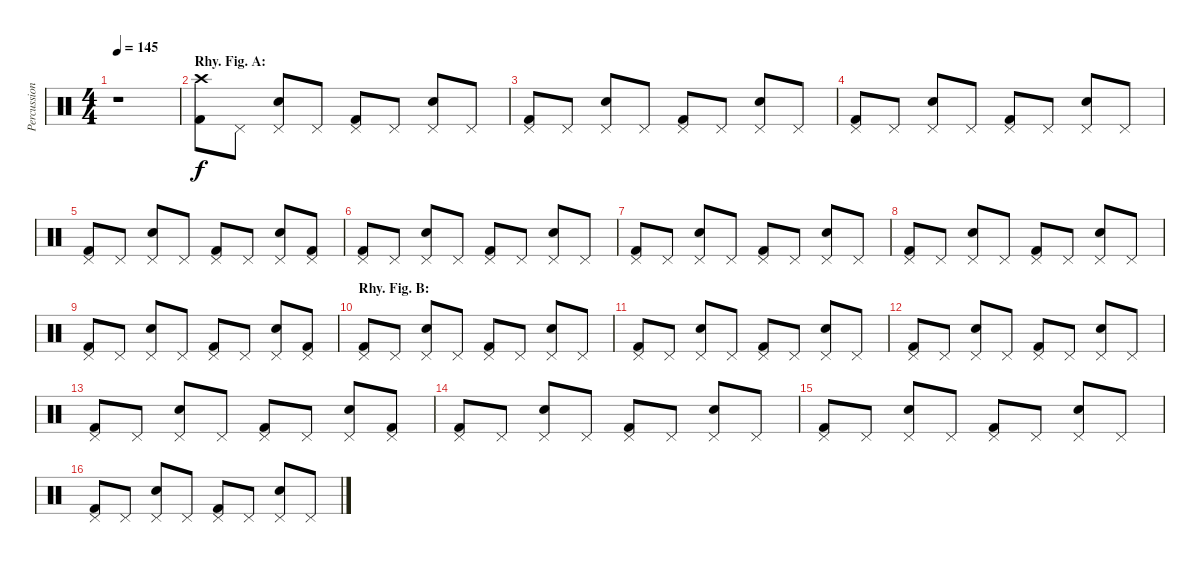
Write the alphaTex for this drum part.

\track ("Percussion" "Percussion") {instrument percussion}
\staff {score}
\articulation defaults
\ts (4 4)
\tempo 145
\clef neutral
\ks c
r.1{dy f} |
\section ("" "Rhy. Fig. A:")
("Crash high (hit)" "Kick (hit) 2").8 "Pedal Hi-Hat (hit)".8 ("Pedal Hi-Hat (hit)" "Electric Snare (hit)").8 "Pedal Hi-Hat (hit)".8 ("Pedal Hi-Hat (hit)" "Kick (hit) 2").8 "Pedal Hi-Hat (hit)".8 ("Pedal Hi-Hat (hit)" "Electric Snare (hit)").8 "Pedal Hi-Hat (hit)".8 |
("Pedal Hi-Hat (hit)" "Kick (hit) 2").8 "Pedal Hi-Hat (hit)".8 ("Pedal Hi-Hat (hit)" "Electric Snare (hit)").8 "Pedal Hi-Hat (hit)".8 ("Pedal Hi-Hat (hit)" "Kick (hit) 2").8 "Pedal Hi-Hat (hit)".8 ("Pedal Hi-Hat (hit)" "Electric Snare (hit)").8 "Pedal Hi-Hat (hit)".8 |
("Pedal Hi-Hat (hit)" "Kick (hit) 2").8 "Pedal Hi-Hat (hit)".8 ("Pedal Hi-Hat (hit)" "Electric Snare (hit)").8 "Pedal Hi-Hat (hit)".8 ("Pedal Hi-Hat (hit)" "Kick (hit) 2").8 "Pedal Hi-Hat (hit)".8 ("Pedal Hi-Hat (hit)" "Electric Snare (hit)").8 "Pedal Hi-Hat (hit)".8 |
("Pedal Hi-Hat (hit)" "Kick (hit) 2").8 "Pedal Hi-Hat (hit)".8 ("Pedal Hi-Hat (hit)" "Electric Snare (hit)").8 "Pedal Hi-Hat (hit)".8 ("Pedal Hi-Hat (hit)" "Kick (hit) 2").8 "Pedal Hi-Hat (hit)".8 ("Pedal Hi-Hat (hit)" "Electric Snare (hit)").8 ("Pedal Hi-Hat (hit)" "Kick (hit) 2").8 |
("Pedal Hi-Hat (hit)" "Kick (hit) 2").8 "Pedal Hi-Hat (hit)".8 ("Pedal Hi-Hat (hit)" "Electric Snare (hit)").8 "Pedal Hi-Hat (hit)".8 ("Pedal Hi-Hat (hit)" "Kick (hit) 2").8 "Pedal Hi-Hat (hit)".8 ("Pedal Hi-Hat (hit)" "Electric Snare (hit)").8 "Pedal Hi-Hat (hit)".8 |
("Pedal Hi-Hat (hit)" "Kick (hit) 2").8 "Pedal Hi-Hat (hit)".8 ("Pedal Hi-Hat (hit)" "Electric Snare (hit)").8 "Pedal Hi-Hat (hit)".8 ("Pedal Hi-Hat (hit)" "Kick (hit) 2").8 "Pedal Hi-Hat (hit)".8 ("Pedal Hi-Hat (hit)" "Electric Snare (hit)").8 "Pedal Hi-Hat (hit)".8 |
("Pedal Hi-Hat (hit)" "Kick (hit) 2").8 "Pedal Hi-Hat (hit)".8 ("Pedal Hi-Hat (hit)" "Electric Snare (hit)").8 "Pedal Hi-Hat (hit)".8 ("Pedal Hi-Hat (hit)" "Kick (hit) 2").8 "Pedal Hi-Hat (hit)".8 ("Pedal Hi-Hat (hit)" "Electric Snare (hit)").8 "Pedal Hi-Hat (hit)".8 |
("Pedal Hi-Hat (hit)" "Kick (hit) 2").8 "Pedal Hi-Hat (hit)".8 ("Pedal Hi-Hat (hit)" "Electric Snare (hit)").8 "Pedal Hi-Hat (hit)".8 ("Pedal Hi-Hat (hit)" "Kick (hit) 2").8 "Pedal Hi-Hat (hit)".8 ("Pedal Hi-Hat (hit)" "Electric Snare (hit)").8 ("Pedal Hi-Hat (hit)" "Kick (hit) 2").8 |
\section ("" "Rhy. Fig. B:")
("Pedal Hi-Hat (hit)" "Kick (hit) 2").8 "Pedal Hi-Hat (hit)".8 ("Pedal Hi-Hat (hit)" "Electric Snare (hit)").8 "Pedal Hi-Hat (hit)".8 ("Pedal Hi-Hat (hit)" "Kick (hit) 2").8 "Pedal Hi-Hat (hit)".8 ("Pedal Hi-Hat (hit)" "Electric Snare (hit)").8 "Pedal Hi-Hat (hit)".8 |
("Pedal Hi-Hat (hit)" "Kick (hit) 2").8 "Pedal Hi-Hat (hit)".8 ("Pedal Hi-Hat (hit)" "Electric Snare (hit)").8 "Pedal Hi-Hat (hit)".8 ("Pedal Hi-Hat (hit)" "Kick (hit) 2").8 "Pedal Hi-Hat (hit)".8 ("Pedal Hi-Hat (hit)" "Electric Snare (hit)").8 "Pedal Hi-Hat (hit)".8 |
("Pedal Hi-Hat (hit)" "Kick (hit) 2").8 "Pedal Hi-Hat (hit)".8 ("Pedal Hi-Hat (hit)" "Electric Snare (hit)").8 "Pedal Hi-Hat (hit)".8 ("Pedal Hi-Hat (hit)" "Kick (hit) 2").8 "Pedal Hi-Hat (hit)".8 ("Pedal Hi-Hat (hit)" "Electric Snare (hit)").8 "Pedal Hi-Hat (hit)".8 |
("Pedal Hi-Hat (hit)" "Kick (hit) 2").8 "Pedal Hi-Hat (hit)".8 ("Pedal Hi-Hat (hit)" "Electric Snare (hit)").8 "Pedal Hi-Hat (hit)".8 ("Pedal Hi-Hat (hit)" "Kick (hit) 2").8 "Pedal Hi-Hat (hit)".8 ("Pedal Hi-Hat (hit)" "Electric Snare (hit)").8 ("Pedal Hi-Hat (hit)" "Kick (hit) 2").8 |
("Pedal Hi-Hat (hit)" "Kick (hit) 2").8 "Pedal Hi-Hat (hit)".8 ("Pedal Hi-Hat (hit)" "Electric Snare (hit)").8 "Pedal Hi-Hat (hit)".8 ("Pedal Hi-Hat (hit)" "Kick (hit) 2").8 "Pedal Hi-Hat (hit)".8 ("Pedal Hi-Hat (hit)" "Electric Snare (hit)").8 "Pedal Hi-Hat (hit)".8 |
("Pedal Hi-Hat (hit)" "Kick (hit) 2").8 "Pedal Hi-Hat (hit)".8 ("Pedal Hi-Hat (hit)" "Electric Snare (hit)").8 "Pedal Hi-Hat (hit)".8 ("Pedal Hi-Hat (hit)" "Kick (hit) 2").8 "Pedal Hi-Hat (hit)".8 ("Pedal Hi-Hat (hit)" "Electric Snare (hit)").8 "Pedal Hi-Hat (hit)".8 |
("Pedal Hi-Hat (hit)" "Kick (hit) 2").8 "Pedal Hi-Hat (hit)".8 ("Pedal Hi-Hat (hit)" "Electric Snare (hit)").8 "Pedal Hi-Hat (hit)".8 ("Pedal Hi-Hat (hit)" "Kick (hit) 2").8 "Pedal Hi-Hat (hit)".8 ("Pedal Hi-Hat (hit)" "Electric Snare (hit)").8 "Pedal Hi-Hat (hit)".8
